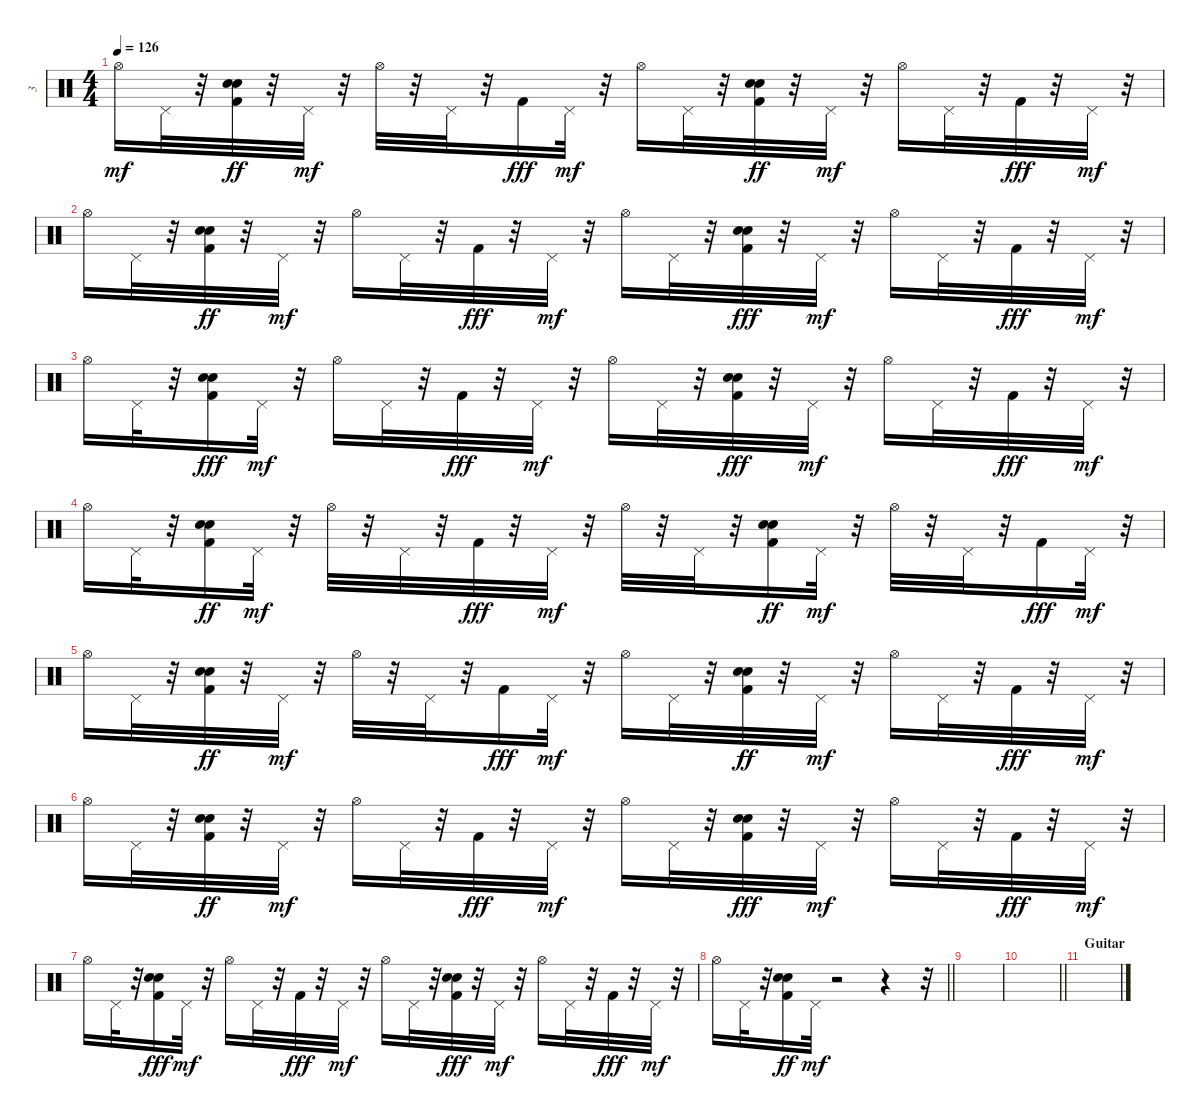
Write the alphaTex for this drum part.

\track ("3" "3") {instrument percussion}
\staff {score}
\articulation defaults
\ts (4 4)
\tempo 126
\clef neutral
\ks c "Hi-Hat (open)".16{dy mf} "Pedal Hi-Hat (hit)".32
r.32 ("Kick (hit) 2" "Snare (hit) 2" "Hand Clap (hit)").32{dy ff} r.32 "Pedal Hi-Hat (hit)".32{dy mf} r.32 "Hi-Hat (open)".32 r.32 "Pedal Hi-Hat (hit)".32 r.32 "Kick (hit) 2".16{dy fff} "Pedal Hi-Hat (hit)".32{dy mf} r.32 "Hi-Hat (open)".16 "Pedal Hi-Hat (hit)".32 r.32 ("Kick (hit) 2" "Snare (hit) 2" "Hand Clap (hit)").32{dy ff} r.32 "Pedal Hi-Hat (hit)".32{dy mf} r.32 "Hi-Hat (open)".16 "Pedal Hi-Hat (hit)".32 r.32 "Kick (hit) 2".32{dy fff} r.32 "Pedal Hi-Hat (hit)".32{dy mf} r.32 |
"Hi-Hat (open)".16 "Pedal Hi-Hat (hit)".32 r.32 ("Kick (hit) 2" "Snare (hit) 2" "Hand Clap (hit)").32{dy ff} r.32 "Pedal Hi-Hat (hit)".32{dy mf} r.32 "Hi-Hat (open)".16 "Pedal Hi-Hat (hit)".32 r.32 "Kick (hit) 2".32{dy fff} r.32 "Pedal Hi-Hat (hit)".32{dy mf} r.32 "Hi-Hat (open)".16 "Pedal Hi-Hat (hit)".32 r.32 ("Kick (hit) 2" "Snare (hit) 2" "Hand Clap (hit)").32{dy fff} r.32 "Pedal Hi-Hat (hit)".32{dy mf} r.32 "Hi-Hat (open)".16 "Pedal Hi-Hat (hit)".32 r.32 "Kick (hit) 2".32{dy fff} r.32 "Pedal Hi-Hat (hit)".32{dy mf} r.32 |
"Hi-Hat (open)".16 "Pedal Hi-Hat (hit)".32 r.32 ("Kick (hit) 2" "Snare (hit) 2" "Hand Clap (hit)").16{dy fff} "Pedal Hi-Hat (hit)".32{dy mf} r.32 "Hi-Hat (open)".16 "Pedal Hi-Hat (hit)".32 r.32 "Kick (hit) 2".32{dy fff} r.32 "Pedal Hi-Hat (hit)".32{dy mf} r.32 "Hi-Hat (open)".16 "Pedal Hi-Hat (hit)".32 r.32 ("Kick (hit) 2" "Snare (hit) 2" "Hand Clap (hit)").32{dy fff} r.32 "Pedal Hi-Hat (hit)".32{dy mf} r.32 "Hi-Hat (open)".16 "Pedal Hi-Hat (hit)".32 r.32 "Kick (hit) 2".32{dy fff} r.32 "Pedal Hi-Hat (hit)".32{dy mf} r.32 |
"Hi-Hat (open)".16 "Pedal Hi-Hat (hit)".32 r.32 ("Kick (hit) 2" "Snare (hit) 2" "Hand Clap (hit)").16{dy ff} "Pedal Hi-Hat (hit)".32{dy mf} r.32 "Hi-Hat (open)".32 r.32 "Pedal Hi-Hat (hit)".32 r.32 "Kick (hit) 2".32{dy fff} r.32 "Pedal Hi-Hat (hit)".32{dy mf} r.32 "Hi-Hat (open)".32 r.32 "Pedal Hi-Hat (hit)".32 r.32 ("Kick (hit) 2" "Snare (hit) 2" "Hand Clap (hit)").16{dy ff} "Pedal Hi-Hat (hit)".32{dy mf} r.32 "Hi-Hat (open)".32 r.32 "Pedal Hi-Hat (hit)".32 r.32 "Kick (hit) 2".16{dy fff} "Pedal Hi-Hat (hit)".32{dy mf} r.32 |
"Hi-Hat (open)".16 "Pedal Hi-Hat (hit)".32 r.32 ("Kick (hit) 2" "Snare (hit) 2" "Hand Clap (hit)").32{dy ff} r.32 "Pedal Hi-Hat (hit)".32{dy mf} r.32 "Hi-Hat (open)".32 r.32 "Pedal Hi-Hat (hit)".32 r.32 "Kick (hit) 2".16{dy fff} "Pedal Hi-Hat (hit)".32{dy mf} r.32 "Hi-Hat (open)".16 "Pedal Hi-Hat (hit)".32 r.32 ("Kick (hit) 2" "Snare (hit) 2" "Hand Clap (hit)").32{dy ff} r.32 "Pedal Hi-Hat (hit)".32{dy mf} r.32 "Hi-Hat (open)".16 "Pedal Hi-Hat (hit)".32 r.32 "Kick (hit) 2".32{dy fff} r.32 "Pedal Hi-Hat (hit)".32{dy mf} r.32 |
"Hi-Hat (open)".16 "Pedal Hi-Hat (hit)".32 r.32 ("Kick (hit) 2" "Snare (hit) 2" "Hand Clap (hit)").32{dy ff} r.32 "Pedal Hi-Hat (hit)".32{dy mf} r.32 "Hi-Hat (open)".16 "Pedal Hi-Hat (hit)".32 r.32 "Kick (hit) 2".32{dy fff} r.32 "Pedal Hi-Hat (hit)".32{dy mf} r.32 "Hi-Hat (open)".16 "Pedal Hi-Hat (hit)".32 r.32 ("Kick (hit) 2" "Snare (hit) 2" "Hand Clap (hit)").32{dy fff} r.32 "Pedal Hi-Hat (hit)".32{dy mf} r.32 "Hi-Hat (open)".16 "Pedal Hi-Hat (hit)".32 r.32 "Kick (hit) 2".32{dy fff} r.32 "Pedal Hi-Hat (hit)".32{dy mf} r.32 |
"Hi-Hat (open)".16 "Pedal Hi-Hat (hit)".32 r.32 ("Kick (hit) 2" "Snare (hit) 2" "Hand Clap (hit)").16{dy fff} "Pedal Hi-Hat (hit)".32{dy mf} r.32 "Hi-Hat (open)".16 "Pedal Hi-Hat (hit)".32 r.32 "Kick (hit) 2".32{dy fff} r.32 "Pedal Hi-Hat (hit)".32{dy mf} r.32 "Hi-Hat (open)".16 "Pedal Hi-Hat (hit)".32 r.32 ("Kick (hit) 2" "Snare (hit) 2" "Hand Clap (hit)").32{dy fff} r.32 "Pedal Hi-Hat (hit)".32{dy mf} r.32 "Hi-Hat (open)".16 "Pedal Hi-Hat (hit)".32 r.32 "Kick (hit) 2".32{dy fff} r.32 "Pedal Hi-Hat (hit)".32{dy mf} r.32 |
\barLineRight lightlight "Hi-Hat (open)".16 "Pedal Hi-Hat (hit)".32
r.32 ("Kick (hit) 2" "Snare (hit) 2" "Hand Clap (hit)").16{dy ff} "Pedal Hi-Hat (hit)".32{dy mf} r.2 r.4 r.32 |
\section ("" "")
|
\barLineRight lightlight
|
\section ("" "Guitar")
